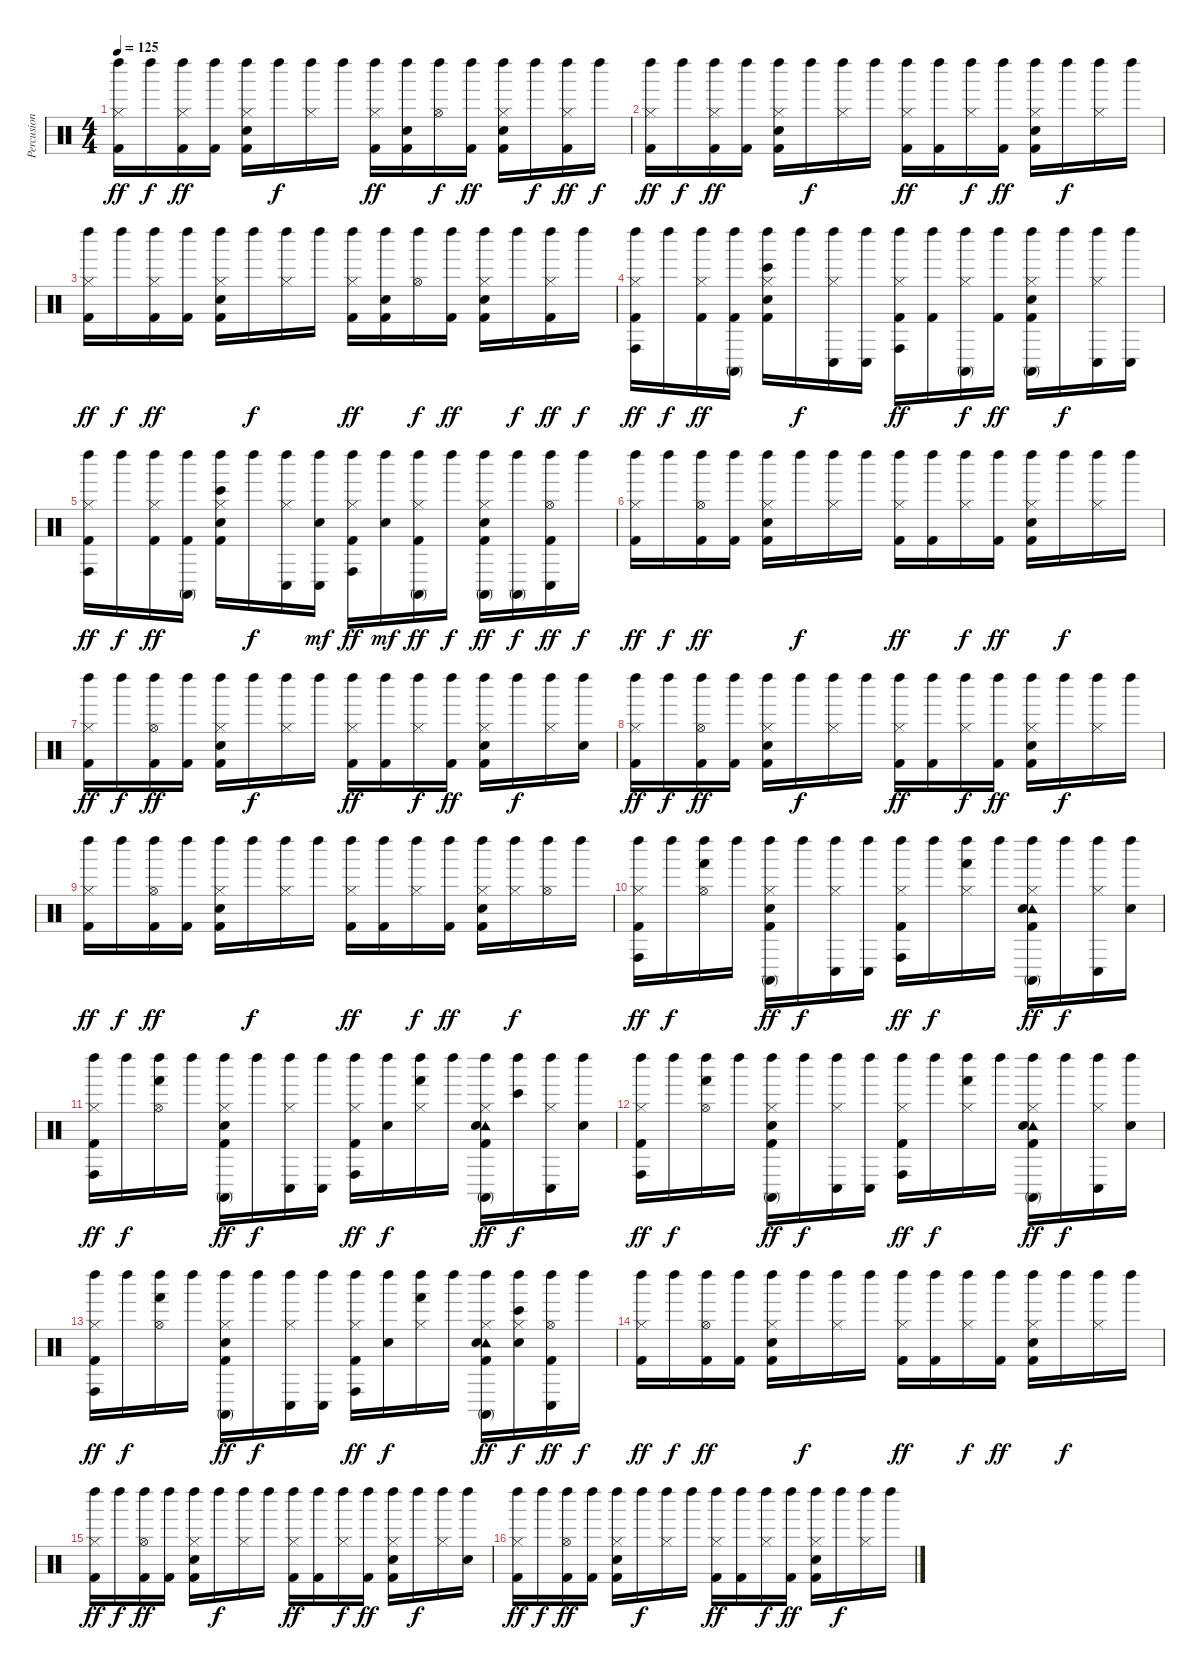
\track ("Percusion" "Percusion") {instrument percussion}
\staff {score}
\articulation defaults
\ts (4 4)
\tempo 125
\clef neutral
\ks c
("Left Maraca (hit)" "Hi-Hat (closed)" "Kick (hit) 2").16{dy ff} "Left Maraca (hit)".16{dy f} ("Left Maraca (hit)" "Hi-Hat (closed)" "Kick (hit) 2").16{dy ff} ("Kick (hit) 2" "Left Maraca (hit)").16 ("Left Maraca (hit)" "Hi-Hat (closed)" "Kick (hit) 2" "Electric Snare (hit)").16 "Left Maraca (hit)".16{dy f} ("Left Maraca (hit)" "Hi-Hat (closed)").16 "Left Maraca (hit)".16 ("Left Maraca (hit)" "Hi-Hat (closed)" "Kick (hit) 2").16{dy ff} ("Kick (hit) 2" "Electric Snare (hit)" "Left Maraca (hit)").16 ("Left Maraca (hit)" "Hi-Hat (open)").16{dy f} ("Left Maraca (hit)" "Kick (hit) 2").16{dy ff} ("Kick (hit) 2" "Electric Snare (hit)" "Left Maraca (hit)" "Hi-Hat (closed)").16 "Left Maraca (hit)".16{dy f} ("Left Maraca (hit)" "Hi-Hat (closed)" "Kick (hit) 2").16{dy ff} "Left Maraca (hit)".16{dy f} |
("Hi-Hat (closed)" "Left Maraca (hit)" "Kick (hit) 2").16{dy ff} "Left Maraca (hit)".16{dy f} ("Left Maraca (hit)" "Hi-Hat (closed)" "Kick (hit) 2").16{dy ff} ("Kick (hit) 2" "Left Maraca (hit)").16 ("Left Maraca (hit)" "Hi-Hat (closed)" "Kick (hit) 2" "Electric Snare (hit)").16 "Left Maraca (hit)".16{dy f} ("Left Maraca (hit)" "Hi-Hat (closed)").16 "Left Maraca (hit)".16 ("Left Maraca (hit)" "Hi-Hat (closed)" "Kick (hit) 2").16{dy ff} ("Kick (hit) 2" "Left Maraca (hit)").16 ("Left Maraca (hit)" "Hi-Hat (closed)").16{dy f} ("Left Maraca (hit)" "Kick (hit) 2").16{dy ff} ("Kick (hit) 2" "Electric Snare (hit)" "Left Maraca (hit)" "Hi-Hat (closed)").16 "Left Maraca (hit)".16{dy f} ("Left Maraca (hit)" "Hi-Hat (closed)").16 "Left Maraca (hit)".16 |
("Left Maraca (hit)" "Hi-Hat (closed)" "Kick (hit) 2").16{dy ff} "Left Maraca (hit)".16{dy f} ("Left Maraca (hit)" "Hi-Hat (closed)" "Kick (hit) 2").16{dy ff} ("Kick (hit) 2" "Left Maraca (hit)").16 ("Left Maraca (hit)" "Hi-Hat (closed)" "Kick (hit) 2" "Electric Snare (hit)").16 "Left Maraca (hit)".16{dy f} ("Left Maraca (hit)" "Hi-Hat (closed)").16 "Left Maraca (hit)".16 ("Left Maraca (hit)" "Hi-Hat (closed)" "Kick (hit) 2").16{dy ff} ("Kick (hit) 2" "Electric Snare (hit)" "Left Maraca (hit)").16 ("Left Maraca (hit)" "Hi-Hat (open)").16{dy f} ("Left Maraca (hit)" "Kick (hit) 2").16{dy ff} ("Kick (hit) 2" "Electric Snare (hit)" "Left Maraca (hit)" "Hi-Hat (closed)").16 "Left Maraca (hit)".16{dy f} ("Left Maraca (hit)" "Hi-Hat (closed)" "Kick (hit) 2").16{dy ff} "Left Maraca (hit)".16{dy f} |
("Hi-Hat (closed)" "Left Maraca (hit)" "Conga high (hit)" "Kick (hit) 2").16{dy ff} "Left Maraca (hit)".16{dy f} ("Left Maraca (hit)" "Hi-Hat (closed)" "Kick (hit) 2").16{dy ff} ("Left Maraca (hit)" "Conga high (mute)" "Kick (hit) 2").16 ("Electric Snare (hit)" "Left Maraca (hit)" "Bongo High (hit)" "Hi-Hat (closed)" "Kick (hit) 2").16 "Left Maraca (hit)".16{dy f} ("Left Maraca (hit)" "Conga low (hit)" "Hi-Hat (closed)").16 ("Conga low (hit)" "Left Maraca (hit)").16 ("Left Maraca (hit)" "Conga high (hit)" "Hi-Hat (closed)" "Kick (hit) 2").16{dy ff} ("Left Maraca (hit)" "Kick (hit) 2").16 ("Left Maraca (hit)" "Conga high (mute)" "Hi-Hat (closed)").16{dy f} ("Left Maraca (hit)" "Kick (hit) 2").16{dy ff} ("Electric Snare (hit)" "Left Maraca (hit)" "Conga high (mute)" "Hi-Hat (closed)" "Kick (hit) 2").16 "Left Maraca (hit)".16{dy f} ("Left Maraca (hit)" "Conga low (hit)" "Hi-Hat (closed)").16 ("Conga low (hit)" "Left Maraca (hit)").16 |
("Left Maraca (hit)" "Conga high (hit)" "Hi-Hat (closed)" "Kick (hit) 2").16{dy ff} "Left Maraca (hit)".16{dy f} ("Left Maraca (hit)" "Hi-Hat (closed)" "Kick (hit) 2").16{dy ff} ("Left Maraca (hit)" "Conga high (mute)" "Kick (hit) 2").16 ("Electric Snare (hit)" "Left Maraca (hit)" "Bongo High (hit)" "Hi-Hat (closed)" "Kick (hit) 2").16 "Left Maraca (hit)".16{dy f} ("Left Maraca (hit)" "Conga low (hit)" "Hi-Hat (closed)").16 ("Conga low (hit)" "Left Maraca (hit)" "Electric Snare (hit)").16{dy mf} ("Left Maraca (hit)" "Conga high (hit)" "Hi-Hat (closed)" "Kick (hit) 2").16{dy ff} ("Electric Snare (hit)" "Left Maraca (hit)").16{dy mf} ("Left Maraca (hit)" "Conga high (mute)" "Hi-Hat (closed)" "Kick (hit) 2").16{dy ff} "Left Maraca (hit)".16{dy f} ("Left Maraca (hit)" "Conga high (mute)" "Hi-Hat (closed)" "Electric Snare (hit)" "Kick (hit) 2").16{dy ff} ("Left Maraca (hit)" "Conga high (mute)").16{dy f} ("Conga low (hit)" "Left Maraca (hit)" "Hi-Hat (open)" "Kick (hit) 2").16{dy ff} "Left Maraca (hit)".16{dy f} |
("Left Maraca (hit)" "Hi-Hat (closed)" "Kick (hit) 2").16{dy ff} "Left Maraca (hit)".16{dy f} ("Left Maraca (hit)" "Hi-Hat (open)" "Kick (hit) 2").16{dy ff} ("Kick (hit) 2" "Left Maraca (hit)").16 ("Left Maraca (hit)" "Hi-Hat (closed)" "Kick (hit) 2" "Electric Snare (hit)").16 "Left Maraca (hit)".16{dy f} ("Left Maraca (hit)" "Hi-Hat (closed)").16 "Left Maraca (hit)".16 ("Left Maraca (hit)" "Hi-Hat (closed)" "Kick (hit) 2").16{dy ff} ("Kick (hit) 2" "Left Maraca (hit)").16 ("Left Maraca (hit)" "Hi-Hat (closed)").16{dy f} ("Left Maraca (hit)" "Kick (hit) 2").16{dy ff} ("Kick (hit) 2" "Electric Snare (hit)" "Left Maraca (hit)" "Hi-Hat (closed)").16 "Left Maraca (hit)".16{dy f} ("Left Maraca (hit)" "Hi-Hat (closed)").16 "Left Maraca (hit)".16 |
("Left Maraca (hit)" "Hi-Hat (closed)" "Kick (hit) 2").16{dy ff} "Left Maraca (hit)".16{dy f} ("Left Maraca (hit)" "Hi-Hat (open)" "Kick (hit) 2").16{dy ff} ("Kick (hit) 2" "Left Maraca (hit)").16 ("Left Maraca (hit)" "Hi-Hat (closed)" "Kick (hit) 2" "Electric Snare (hit)").16 "Left Maraca (hit)".16{dy f} ("Left Maraca (hit)" "Hi-Hat (closed)").16 "Left Maraca (hit)".16 ("Left Maraca (hit)" "Hi-Hat (closed)" "Kick (hit) 2").16{dy ff} ("Kick (hit) 2" "Left Maraca (hit)").16 ("Left Maraca (hit)" "Hi-Hat (closed)").16{dy f} ("Left Maraca (hit)" "Kick (hit) 2").16{dy ff} ("Kick (hit) 2" "Electric Snare (hit)" "Left Maraca (hit)" "Hi-Hat (closed)").16 "Left Maraca (hit)".16{dy f} ("Left Maraca (hit)" "Hi-Hat (closed)").16 ("Left Maraca (hit)" "Electric Snare (hit)").16 |
("Kick (hit) 2" "Left Maraca (hit)" "Hi-Hat (closed)").16{dy ff} "Left Maraca (hit)".16{dy f} ("Left Maraca (hit)" "Hi-Hat (open)" "Kick (hit) 2").16{dy ff} ("Kick (hit) 2" "Left Maraca (hit)").16 ("Left Maraca (hit)" "Hi-Hat (closed)" "Kick (hit) 2" "Electric Snare (hit)").16 "Left Maraca (hit)".16{dy f} ("Left Maraca (hit)" "Hi-Hat (closed)").16 "Left Maraca (hit)".16 ("Left Maraca (hit)" "Hi-Hat (closed)" "Kick (hit) 2").16{dy ff} ("Kick (hit) 2" "Left Maraca (hit)").16 ("Left Maraca (hit)" "Hi-Hat (closed)").16{dy f} ("Left Maraca (hit)" "Kick (hit) 2").16{dy ff} ("Kick (hit) 2" "Electric Snare (hit)" "Left Maraca (hit)" "Hi-Hat (closed)").16 "Left Maraca (hit)".16{dy f} ("Left Maraca (hit)" "Hi-Hat (closed)").16 "Left Maraca (hit)".16 |
("Left Maraca (hit)" "Hi-Hat (closed)" "Kick (hit) 2").16{dy ff} "Left Maraca (hit)".16{dy f} ("Left Maraca (hit)" "Hi-Hat (open)" "Kick (hit) 2").16{dy ff} ("Kick (hit) 2" "Left Maraca (hit)").16 ("Left Maraca (hit)" "Hi-Hat (closed)" "Kick (hit) 2" "Electric Snare (hit)").16 "Left Maraca (hit)".16{dy f} ("Left Maraca (hit)" "Hi-Hat (closed)").16 "Left Maraca (hit)".16 ("Left Maraca (hit)" "Hi-Hat (closed)" "Kick (hit) 2").16{dy ff} ("Kick (hit) 2" "Left Maraca (hit)").16 ("Left Maraca (hit)" "Hi-Hat (closed)").16{dy f} ("Left Maraca (hit)" "Kick (hit) 2").16{dy ff} ("Kick (hit) 2" "Electric Snare (hit)" "Left Maraca (hit)" "Hi-Hat (closed)").16 ("Left Maraca (hit)" "Hi-Hat (closed)").16{dy f} ("Left Maraca (hit)" "Hi-Hat (open)").16 "Left Maraca (hit)".16 |
("Left Maraca (hit)" "Hi-Hat (closed)" "Conga high (hit)" "Kick (hit) 2").16{dy ff} "Left Maraca (hit)".16{dy f} ("Left Maraca (hit)" "Hi-Hat (open)" "Hand (hit)").16 "Left Maraca (hit)".16 ("Left Maraca (hit)" "Hi-Hat (closed)" "Conga high (mute)" "Kick (hit) 2" "Electric Snare (hit)").16{dy ff} "Left Maraca (hit)".16{dy f} ("Left Maraca (hit)" "Hi-Hat (closed)" "Conga low (hit)").16 ("Conga low (hit)" "Left Maraca (hit)").16 ("Left Maraca (hit)" "Hi-Hat (closed)" "Conga high (hit)" "Kick (hit) 2").16{dy ff} "Left Maraca (hit)".16{dy f} ("Left Maraca (hit)" "Hi-Hat (closed)" "Hand (hit)").16 "Left Maraca (hit)".16 ("Left Maraca (hit)" "Hi-Hat (closed)" "Conga high (mute)" "Tambourine (hit)" "Kick (hit) 2" "Electric Snare (hit)").16{dy ff} "Left Maraca (hit)".16{dy f} ("Left Maraca (hit)" "Hi-Hat (closed)" "Conga low (hit)").16 ("Left Maraca (hit)" "Electric Snare (hit)").16 |
("Kick (hit) 2" "Left Maraca (hit)" "Hi-Hat (closed)" "Conga high (hit)").16{dy ff} "Left Maraca (hit)".16{dy f} ("Left Maraca (hit)" "Hi-Hat (open)" "Hand (hit)").16 "Left Maraca (hit)".16 ("Left Maraca (hit)" "Hi-Hat (closed)" "Conga high (mute)" "Kick (hit) 2" "Electric Snare (hit)").16{dy ff} "Left Maraca (hit)".16{dy f} ("Left Maraca (hit)" "Hi-Hat (closed)" "Conga low (hit)").16 ("Conga low (hit)" "Left Maraca (hit)").16 ("Left Maraca (hit)" "Hi-Hat (closed)" "Conga high (hit)" "Kick (hit) 2").16{dy ff} ("Electric Snare (hit)" "Left Maraca (hit)").16{dy f} ("Left Maraca (hit)" "Hi-Hat (closed)" "Hand (hit)").16 "Left Maraca (hit)".16 ("Left Maraca (hit)" "Hi-Hat (closed)" "Conga high (mute)" "Tambourine (hit)" "Electric Snare (hit)" "Kick (hit) 2").16{dy ff} ("Bongo High (hit)" "Left Maraca (hit)").16{dy f} ("Left Maraca (hit)" "Hi-Hat (closed)" "Conga low (hit)").16 ("Left Maraca (hit)" "Electric Snare (hit)").16 |
("Kick (hit) 2" "Left Maraca (hit)" "Hi-Hat (closed)" "Conga high (hit)").16{dy ff} "Left Maraca (hit)".16{dy f} ("Left Maraca (hit)" "Hi-Hat (open)" "Hand (hit)").16 "Left Maraca (hit)".16 ("Left Maraca (hit)" "Hi-Hat (closed)" "Conga high (mute)" "Kick (hit) 2" "Electric Snare (hit)").16{dy ff} "Left Maraca (hit)".16{dy f} ("Left Maraca (hit)" "Hi-Hat (closed)" "Conga low (hit)").16 ("Conga low (hit)" "Left Maraca (hit)").16 ("Left Maraca (hit)" "Hi-Hat (closed)" "Conga high (hit)" "Kick (hit) 2").16{dy ff} "Left Maraca (hit)".16{dy f} ("Left Maraca (hit)" "Hi-Hat (closed)" "Hand (hit)").16 "Left Maraca (hit)".16 ("Left Maraca (hit)" "Hi-Hat (closed)" "Conga high (mute)" "Tambourine (hit)" "Kick (hit) 2" "Electric Snare (hit)").16{dy ff} "Left Maraca (hit)".16{dy f} ("Left Maraca (hit)" "Hi-Hat (closed)" "Conga low (hit)").16 ("Left Maraca (hit)" "Electric Snare (hit)").16 |
("Kick (hit) 2" "Left Maraca (hit)" "Hi-Hat (closed)" "Conga high (hit)").16{dy ff} "Left Maraca (hit)".16{dy f} ("Left Maraca (hit)" "Hi-Hat (open)" "Hand (hit)").16 "Left Maraca (hit)".16 ("Left Maraca (hit)" "Hi-Hat (closed)" "Conga high (mute)" "Kick (hit) 2" "Electric Snare (hit)").16{dy ff} "Left Maraca (hit)".16{dy f} ("Left Maraca (hit)" "Hi-Hat (closed)" "Conga low (hit)").16 ("Conga low (hit)" "Left Maraca (hit)").16 ("Left Maraca (hit)" "Hi-Hat (closed)" "Conga high (hit)" "Kick (hit) 2").16{dy ff} ("Electric Snare (hit)" "Left Maraca (hit)").16{dy f} ("Left Maraca (hit)" "Hi-Hat (closed)" "Hand (hit)").16 "Left Maraca (hit)".16 ("Left Maraca (hit)" "Hi-Hat (closed)" "Conga high (mute)" "Tambourine (hit)" "Electric Snare (hit)" "Kick (hit) 2").16{dy ff} ("Electric Snare (hit)" "Bongo High (hit)" "Left Maraca (hit)" "Hi-Hat (closed)").16{dy f} ("Left Maraca (hit)" "Hi-Hat (open)" "Conga low (hit)" "Kick (hit) 2").16{dy ff} "Left Maraca (hit)".16{dy f} |
("Left Maraca (hit)" "Hi-Hat (closed)" "Kick (hit) 2").16{dy ff} "Left Maraca (hit)".16{dy f} ("Left Maraca (hit)" "Hi-Hat (open)" "Kick (hit) 2").16{dy ff} ("Kick (hit) 2" "Left Maraca (hit)").16 ("Left Maraca (hit)" "Hi-Hat (closed)" "Kick (hit) 2" "Electric Snare (hit)").16 "Left Maraca (hit)".16{dy f} ("Left Maraca (hit)" "Hi-Hat (closed)").16 "Left Maraca (hit)".16 ("Left Maraca (hit)" "Hi-Hat (closed)" "Kick (hit) 2").16{dy ff} ("Kick (hit) 2" "Left Maraca (hit)").16 ("Left Maraca (hit)" "Hi-Hat (closed)").16{dy f} ("Left Maraca (hit)" "Kick (hit) 2").16{dy ff} ("Kick (hit) 2" "Electric Snare (hit)" "Left Maraca (hit)" "Hi-Hat (closed)").16 "Left Maraca (hit)".16{dy f} ("Left Maraca (hit)" "Hi-Hat (closed)").16 "Left Maraca (hit)".16 |
("Left Maraca (hit)" "Hi-Hat (closed)" "Kick (hit) 2").16{dy ff} "Left Maraca (hit)".16{dy f} ("Left Maraca (hit)" "Hi-Hat (open)" "Kick (hit) 2").16{dy ff} ("Kick (hit) 2" "Left Maraca (hit)").16 ("Left Maraca (hit)" "Hi-Hat (closed)" "Kick (hit) 2" "Electric Snare (hit)").16 "Left Maraca (hit)".16{dy f} ("Left Maraca (hit)" "Hi-Hat (closed)").16 "Left Maraca (hit)".16 ("Left Maraca (hit)" "Hi-Hat (closed)" "Kick (hit) 2").16{dy ff} ("Kick (hit) 2" "Left Maraca (hit)").16 ("Left Maraca (hit)" "Hi-Hat (closed)").16{dy f} ("Left Maraca (hit)" "Kick (hit) 2").16{dy ff} ("Kick (hit) 2" "Electric Snare (hit)" "Left Maraca (hit)" "Hi-Hat (closed)").16 "Left Maraca (hit)".16{dy f} ("Left Maraca (hit)" "Hi-Hat (closed)").16 ("Left Maraca (hit)" "Electric Snare (hit)").16 |
("Kick (hit) 2" "Left Maraca (hit)" "Hi-Hat (closed)").16{dy ff} "Left Maraca (hit)".16{dy f} ("Left Maraca (hit)" "Hi-Hat (open)" "Kick (hit) 2").16{dy ff} ("Kick (hit) 2" "Left Maraca (hit)").16 ("Left Maraca (hit)" "Hi-Hat (closed)" "Kick (hit) 2" "Electric Snare (hit)").16 "Left Maraca (hit)".16{dy f} ("Left Maraca (hit)" "Hi-Hat (closed)").16 "Left Maraca (hit)".16 ("Left Maraca (hit)" "Hi-Hat (closed)" "Kick (hit) 2").16{dy ff} ("Kick (hit) 2" "Left Maraca (hit)").16 ("Left Maraca (hit)" "Hi-Hat (closed)").16{dy f} ("Left Maraca (hit)" "Kick (hit) 2").16{dy ff} ("Kick (hit) 2" "Electric Snare (hit)" "Left Maraca (hit)" "Hi-Hat (closed)").16 "Left Maraca (hit)".16{dy f} ("Left Maraca (hit)" "Hi-Hat (closed)").16 "Left Maraca (hit)".16
